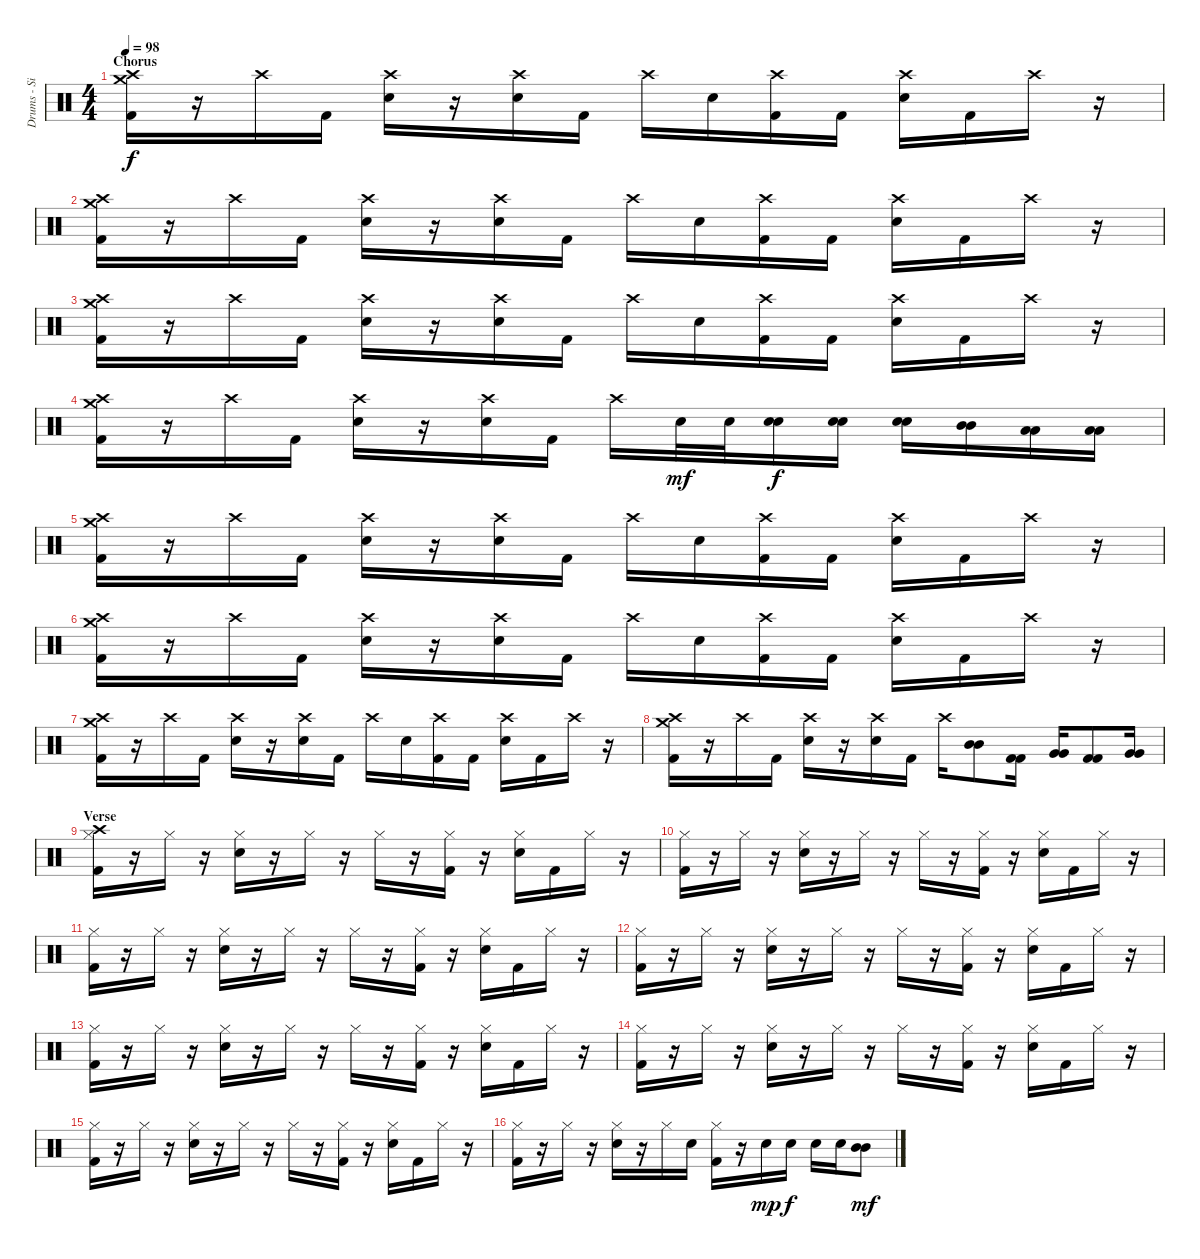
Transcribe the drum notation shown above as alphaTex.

\track ("Drums - Si" "Drums - Si") {instrument percussion}
\staff {score}
\articulation defaults
\ts (4 4)
\section ("" "Chorus")
\tempo 98
\clef neutral
\ks c
("Crash high (hit)" "Crash medium (hit)" "Kick (hit) 2").16{dy f} r.16 "Crash high (hit)".16 "Kick (hit) 2".16 ("Crash high (hit)" "Snare (hit) 2").16 r.16 ("Crash high (hit)" "Snare (hit) 2").16 "Kick (hit) 2".16 "Crash high (hit)".16 "Snare (hit) 2".16 ("Crash high (hit)" "Kick (hit) 2").16 "Kick (hit) 2".16 ("Crash high (hit)" "Snare (hit) 2").16 "Kick (hit) 2".16 "Crash high (hit)".16 r.16 |
("Crash high (hit)" "Crash medium (hit)" "Kick (hit) 2").16 r.16 "Crash high (hit)".16 "Kick (hit) 2".16 ("Crash high (hit)" "Snare (hit) 2").16 r.16 ("Crash high (hit)" "Snare (hit) 2").16 "Kick (hit) 2".16 "Crash high (hit)".16 "Snare (hit) 2".16 ("Crash high (hit)" "Kick (hit) 2").16 "Kick (hit) 2".16 ("Crash high (hit)" "Snare (hit) 2").16 "Kick (hit) 2".16 "Crash high (hit)".16 r.16 |
("Crash high (hit)" "Crash medium (hit)" "Kick (hit) 2").16 r.16 "Crash high (hit)".16 "Kick (hit) 2".16 ("Crash high (hit)" "Snare (hit) 2").16 r.16 ("Crash high (hit)" "Snare (hit) 2").16 "Kick (hit) 2".16 "Crash high (hit)".16 "Snare (hit) 2".16 ("Crash high (hit)" "Kick (hit) 2").16 "Kick (hit) 2".16 ("Crash high (hit)" "Snare (hit) 2").16 "Kick (hit) 2".16 "Crash high (hit)".16 r.16 |
("Crash high (hit)" "Crash medium (hit)" "Kick (hit) 2").16 r.16 "Crash high (hit)".16 "Kick (hit) 2".16 ("Crash high (hit)" "Snare (hit) 2").16 r.16 ("Crash high (hit)" "Snare (hit) 2").16 "Kick (hit) 2".16 "Crash high (hit)".16 "Snare (hit) 2".32{dy mf} "Snare (hit) 2".32 ("Snare (hit) 2" "Snare (hit) 2").16{dy f} ("Snare (hit) 2" "Snare (hit) 2").16 ("Snare (hit) 2" "Snare (hit) 2").16 ("Mid Tom (hit)" "Mid Tom (hit)").16 ("Low Tom (hit)" "Low Tom (hit)").16 ("Low Tom (hit)" "Low Tom (hit)").16 |
("Crash high (hit)" "Crash medium (hit)" "Kick (hit) 2").16 r.16 "Crash high (hit)".16 "Kick (hit) 2".16 ("Crash high (hit)" "Snare (hit) 2").16 r.16 ("Crash high (hit)" "Snare (hit) 2").16 "Kick (hit) 2".16 "Crash high (hit)".16 "Snare (hit) 2".16 ("Crash high (hit)" "Kick (hit) 2").16 "Kick (hit) 2".16 ("Crash high (hit)" "Snare (hit) 2").16 "Kick (hit) 2".16 "Crash high (hit)".16 r.16 |
("Crash high (hit)" "Crash medium (hit)" "Kick (hit) 2").16 r.16 "Crash high (hit)".16 "Kick (hit) 2".16 ("Crash high (hit)" "Snare (hit) 2").16 r.16 ("Crash high (hit)" "Snare (hit) 2").16 "Kick (hit) 2".16 "Crash high (hit)".16 "Snare (hit) 2".16 ("Crash high (hit)" "Kick (hit) 2").16 "Kick (hit) 2".16 ("Crash high (hit)" "Snare (hit) 2").16 "Kick (hit) 2".16 "Crash high (hit)".16 r.16 |
("Crash high (hit)" "Crash medium (hit)" "Kick (hit) 2").16 r.16 "Crash high (hit)".16 "Kick (hit) 2".16 ("Crash high (hit)" "Snare (hit) 2").16 r.16 ("Crash high (hit)" "Snare (hit) 2").16 "Kick (hit) 2".16 "Crash high (hit)".16 "Snare (hit) 2".16 ("Crash high (hit)" "Kick (hit) 2").16 "Kick (hit) 2".16 ("Crash high (hit)" "Snare (hit) 2").16 "Kick (hit) 2".16 "Crash high (hit)".16 r.16 |
("Crash high (hit)" "Crash medium (hit)" "Kick (hit) 2").16 r.16 "Crash high (hit)".16 "Kick (hit) 2".16 ("Crash high (hit)" "Snare (hit) 2").16 r.16 ("Crash high (hit)" "Snare (hit) 2").16 "Kick (hit) 2".16 "Crash high (hit)".16 ("Mid Tom (hit)" "Mid Tom (hit)").8 ("Kick (hit) 2" "Kick (hit) 2").16 ("Very Low Tom (hit)" "Very Low Tom (hit)").16 ("Kick (hit) 2" "Kick (hit) 2").8 ("Very Low Tom (hit)" "Very Low Tom (hit)").16 |
\section ("" "Verse")
("Hi-Hat (closed)" "Crash high (hit)" "Kick (hit) 2").16 r.16 "Hi-Hat (closed)".16 r.16 ("Hi-Hat (closed)" "Snare (hit) 2").16 r.16 "Hi-Hat (closed)".16 r.16 "Hi-Hat (closed)".16 r.16 ("Hi-Hat (closed)" "Kick (hit) 2").16 r.16 ("Hi-Hat (closed)" "Snare (hit) 2").16 "Kick (hit) 2".16 "Hi-Hat (closed)".16 r.16 |
("Hi-Hat (closed)" "Kick (hit) 2").16 r.16 "Hi-Hat (closed)".16 r.16 ("Hi-Hat (closed)" "Snare (hit) 2").16 r.16 "Hi-Hat (closed)".16 r.16 "Hi-Hat (closed)".16 r.16 ("Hi-Hat (closed)" "Kick (hit) 2").16 r.16 ("Hi-Hat (closed)" "Snare (hit) 2").16 "Kick (hit) 2".16 "Hi-Hat (closed)".16 r.16 |
("Hi-Hat (closed)" "Kick (hit) 2").16 r.16 "Hi-Hat (closed)".16 r.16 ("Hi-Hat (closed)" "Snare (hit) 2").16 r.16 "Hi-Hat (closed)".16 r.16 "Hi-Hat (closed)".16 r.16 ("Hi-Hat (closed)" "Kick (hit) 2").16 r.16 ("Hi-Hat (closed)" "Snare (hit) 2").16 "Kick (hit) 2".16 "Hi-Hat (closed)".16 r.16 |
("Hi-Hat (closed)" "Kick (hit) 2").16 r.16 "Hi-Hat (closed)".16 r.16 ("Hi-Hat (closed)" "Snare (hit) 2").16 r.16 "Hi-Hat (closed)".16 r.16 "Hi-Hat (closed)".16 r.16 ("Hi-Hat (closed)" "Kick (hit) 2").16 r.16 ("Hi-Hat (closed)" "Snare (hit) 2").16 "Kick (hit) 2".16 "Hi-Hat (closed)".16 r.16 |
("Hi-Hat (closed)" "Kick (hit) 2").16 r.16 "Hi-Hat (closed)".16 r.16 ("Hi-Hat (closed)" "Snare (hit) 2").16 r.16 "Hi-Hat (closed)".16 r.16 "Hi-Hat (closed)".16 r.16 ("Hi-Hat (closed)" "Kick (hit) 2").16 r.16 ("Hi-Hat (closed)" "Snare (hit) 2").16 "Kick (hit) 2".16 "Hi-Hat (closed)".16 r.16 |
("Hi-Hat (closed)" "Kick (hit) 2").16 r.16 "Hi-Hat (closed)".16 r.16 ("Hi-Hat (closed)" "Snare (hit) 2").16 r.16 "Hi-Hat (closed)".16 r.16 "Hi-Hat (closed)".16 r.16 ("Hi-Hat (closed)" "Kick (hit) 2").16 r.16 ("Hi-Hat (closed)" "Snare (hit) 2").16 "Kick (hit) 2".16 "Hi-Hat (closed)".16 r.16 |
("Hi-Hat (closed)" "Kick (hit) 2").16 r.16 "Hi-Hat (closed)".16 r.16 ("Hi-Hat (closed)" "Snare (hit) 2").16 r.16 "Hi-Hat (closed)".16 r.16 "Hi-Hat (closed)".16 r.16 ("Hi-Hat (closed)" "Kick (hit) 2").16 r.16 ("Hi-Hat (closed)" "Snare (hit) 2").16 "Kick (hit) 2".16 "Hi-Hat (closed)".16 r.16 |
("Hi-Hat (closed)" "Kick (hit) 2").16 r.16 "Hi-Hat (closed)".16 r.16 ("Hi-Hat (closed)" "Snare (hit) 2").16 r.16 "Hi-Hat (closed)".16 "Snare (hit) 2".16 ("Hi-Hat (closed)" "Kick (hit) 2").16 r.16 "Snare (hit) 2".16{dy mp} "Snare (hit) 2".16{dy f} "Snare (hit) 2".16 "Snare (hit) 2".16 ("Mid Tom (hit)" "Mid Tom (hit)").8{dy mf}
